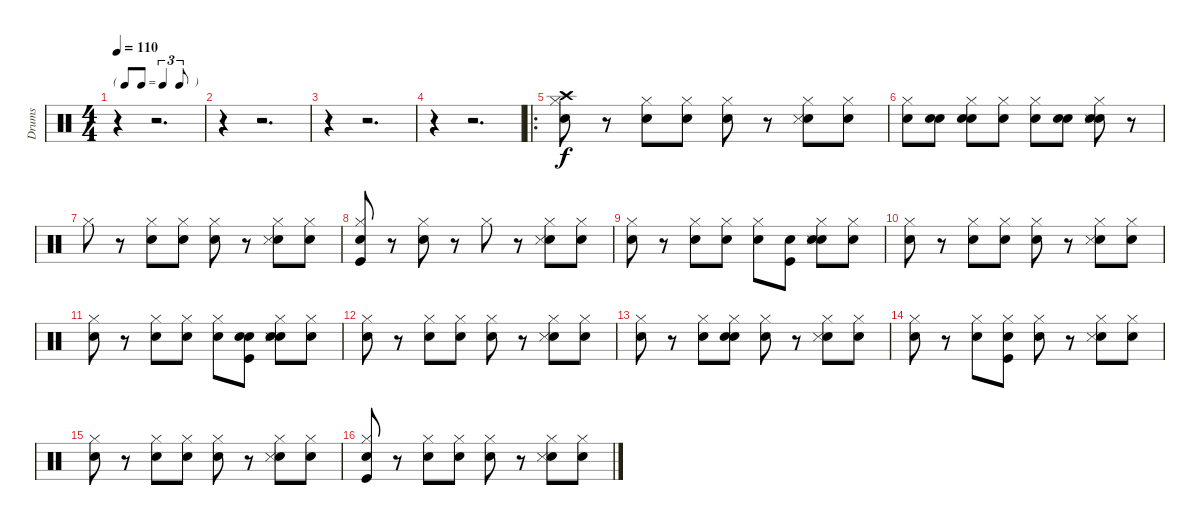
\track ("Drums " "Drums ") {instrument percussion}
\staff {score}
\articulation defaults
\ts (4 4)
\tf triplet8th
\tempo 110
\clef neutral
\ks c
r.4{dy f} r.2{d} |
r.4 r.2{d} |
r.4 r.2{d} |
r.4 r.2{d} |
\ro
("Snare (hit) 2" "Hi-Hat (closed)" "Crash high (hit)").8 r.8 ("Snare (hit) 2" "Hi-Hat (closed)").8 ("Snare (hit)" "Hi-Hat (closed)").8 ("Snare (hit)" "Hi-Hat (closed)").8 r.8 ("Snare (hit) 2" "Hi-Hat (closed)" "Snare (side stick) 3").8 ("Snare (hit)" "Hi-Hat (closed)").8 |
("Snare (hit)" "Hi-Hat (closed)").8 ("Snare (hit)" "Snare (hit) 2").8 ("Snare (hit)" "Snare (hit) 2" "Hi-Hat (closed)").8 ("Snare (hit)" "Hi-Hat (closed)").8 ("Snare (hit)" "Hi-Hat (closed)").8 ("Snare (hit)" "Snare (hit) 2").8 ("Snare (hit)" "Snare (hit) 2" "Hi-Hat (closed)" "Snare (side stick) 3").8 r.8 |
"Hi-Hat (closed)".8 r.8 ("Snare (hit) 2" "Hi-Hat (closed)").8 ("Snare (hit)" "Hi-Hat (closed)").8 ("Snare (hit)" "Hi-Hat (closed)").8 r.8 ("Snare (hit) 2" "Hi-Hat (closed)" "Snare (side stick) 3").8 ("Snare (hit)" "Hi-Hat (closed)").8 |
("Snare (hit)" "Kick (hit)" "Hi-Hat (closed)").8 r.8 ("Snare (hit) 2" "Hi-Hat (closed)").8 r.8 "Hi-Hat (closed)".8 r.8 ("Snare (hit) 2" "Hi-Hat (closed)" "Snare (side stick) 3").8 ("Snare (hit)" "Hi-Hat (closed)").8 |
("Snare (hit)" "Hi-Hat (closed)").8 r.8 ("Snare (hit) 2" "Hi-Hat (closed)").8 ("Snare (hit)" "Hi-Hat (closed)").8 ("Snare (hit)" "Hi-Hat (closed)").8 ("Snare (hit)" "Kick (hit)").8 ("Snare (hit)" "Snare (hit) 2" "Hi-Hat (closed)" "Snare (side stick) 3").8 ("Snare (hit)" "Hi-Hat (closed)").8 |
("Snare (hit)" "Hi-Hat (closed)").8 r.8 ("Snare (hit) 2" "Hi-Hat (closed)").8 ("Snare (hit)" "Hi-Hat (closed)").8 ("Snare (hit)" "Hi-Hat (closed)").8 r.8 ("Snare (hit) 2" "Hi-Hat (closed)" "Snare (side stick) 3").8 ("Snare (hit)" "Hi-Hat (closed)").8 |
("Snare (hit)" "Hi-Hat (closed)").8 r.8 ("Snare (hit) 2" "Hi-Hat (closed)").8 ("Snare (hit)" "Hi-Hat (closed)").8 ("Snare (hit)" "Hi-Hat (closed)").8 ("Snare (hit)" "Kick (hit)" "Snare (hit) 2").8 ("Snare (hit)" "Snare (hit) 2" "Hi-Hat (closed)" "Snare (side stick) 3").8 ("Snare (hit)" "Hi-Hat (closed)").8 |
("Snare (hit)" "Hi-Hat (closed)").8 r.8 ("Snare (hit) 2" "Hi-Hat (closed)").8 ("Snare (hit)" "Hi-Hat (closed)").8 ("Snare (hit)" "Hi-Hat (closed)").8 r.8 ("Snare (hit) 2" "Hi-Hat (closed)" "Snare (side stick) 3").8 ("Snare (hit)" "Hi-Hat (closed)").8 |
("Snare (hit)" "Hi-Hat (closed)").8 r.8 ("Snare (hit) 2" "Hi-Hat (closed)").8 ("Snare (hit)" "Snare (hit) 2" "Hi-Hat (closed)").8 ("Snare (hit)" "Hi-Hat (closed)").8 r.8 ("Snare (hit) 2" "Hi-Hat (closed)" "Snare (side stick) 3").8 ("Snare (hit)" "Hi-Hat (closed)").8 |
("Snare (hit)" "Hi-Hat (closed)").8 r.8 ("Snare (hit) 2" "Hi-Hat (closed)").8 ("Snare (hit)" "Kick (hit)" "Hi-Hat (closed)").8 ("Snare (hit)" "Hi-Hat (closed)").8 r.8 ("Snare (hit) 2" "Hi-Hat (closed)" "Snare (side stick) 3").8 ("Snare (hit)" "Hi-Hat (closed)").8 |
("Snare (hit)" "Hi-Hat (closed)").8 r.8 ("Snare (hit) 2" "Hi-Hat (closed)").8 ("Snare (hit)" "Hi-Hat (closed)").8 ("Snare (hit)" "Hi-Hat (closed)").8 r.8 ("Snare (hit) 2" "Hi-Hat (closed)" "Snare (side stick) 3").8 ("Snare (hit)" "Hi-Hat (closed)").8 |
("Snare (hit)" "Kick (hit)" "Hi-Hat (closed)").8 r.8 ("Snare (hit) 2" "Hi-Hat (closed)").8 ("Snare (hit)" "Hi-Hat (closed)").8 ("Snare (hit)" "Hi-Hat (closed)").8 r.8 ("Snare (hit) 2" "Hi-Hat (closed)" "Snare (side stick) 3").8 ("Snare (hit)" "Hi-Hat (closed)").8
